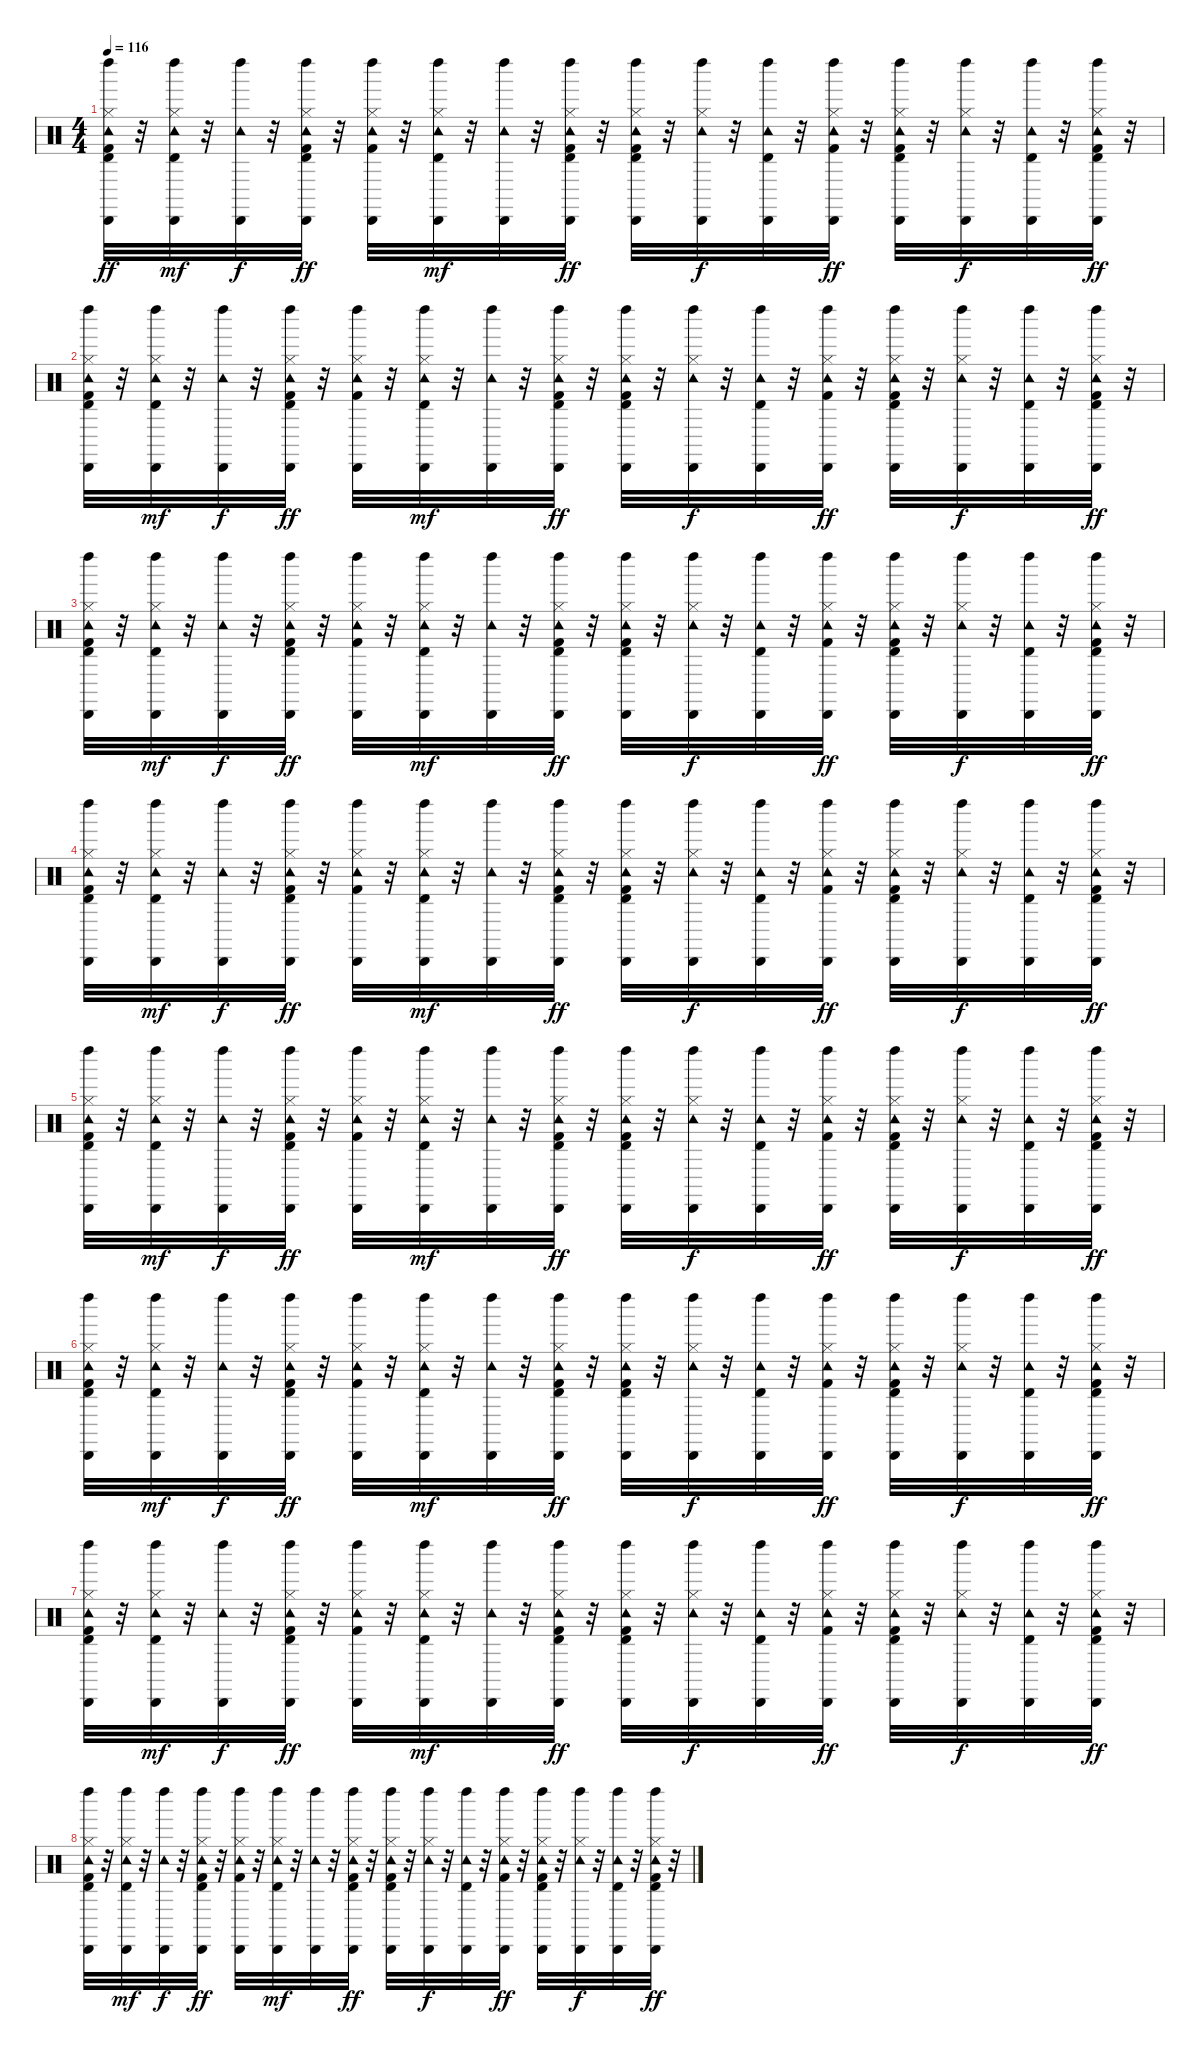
\track "" {instrument percussion}
\staff {score}
\articulation defaults
\ts (4 4)
\tempo 116
\clef neutral
\ks c
("Kick (hit) 2" "Hi-Hat (closed)" "Tambourine (hit)" "Timbale high (hit)" "Cabasa (hit)" "Left Maraca (hit)").32{dy ff} r.32 ("Hi-Hat (closed)" "Tambourine (hit)" "Timbale high (hit)" "Cabasa (hit)" "Left Maraca (hit)").32{dy mf} r.32 ("Tambourine (hit)" "Cabasa (hit)" "Left Maraca (hit)").32{dy f} r.32 ("Kick (hit) 2" "Hi-Hat (closed)" "Tambourine (hit)" "Timbale high (hit)" "Cabasa (hit)" "Left Maraca (hit)").32{dy ff} r.32 ("Kick (hit) 2" "Hi-Hat (closed)" "Tambourine (hit)" "Cabasa (hit)" "Left Maraca (hit)").32 r.32 ("Hi-Hat (closed)" "Tambourine (hit)" "Timbale high (hit)" "Cabasa (hit)" "Left Maraca (hit)").32{dy mf} r.32 ("Tambourine (hit)" "Cabasa (hit)" "Left Maraca (hit)").32 r.32 ("Kick (hit) 2" "Hi-Hat (closed)" "Tambourine (hit)" "Timbale high (hit)" "Cabasa (hit)" "Left Maraca (hit)").32{dy ff} r.32 ("Kick (hit) 2" "Hi-Hat (closed)" "Tambourine (hit)" "Timbale high (hit)" "Cabasa (hit)" "Left Maraca (hit)").32 r.32 ("Hi-Hat (closed)" "Tambourine (hit)" "Cabasa (hit)" "Left Maraca (hit)").32{dy f} r.32 ("Tambourine (hit)" "Timbale high (hit)" "Cabasa (hit)" "Left Maraca (hit)").32 r.32 ("Kick (hit) 2" "Hi-Hat (closed)" "Tambourine (hit)" "Cabasa (hit)" "Left Maraca (hit)").32{dy ff} r.32 ("Kick (hit) 2" "Hi-Hat (closed)" "Tambourine (hit)" "Timbale high (hit)" "Cabasa (hit)" "Left Maraca (hit)").32 r.32 ("Hi-Hat (closed)" "Tambourine (hit)" "Cabasa (hit)" "Left Maraca (hit)").32{dy f} r.32 ("Tambourine (hit)" "Timbale high (hit)" "Cabasa (hit)" "Left Maraca (hit)").32 r.32 ("Kick (hit) 2" "Hi-Hat (closed)" "Tambourine (hit)" "Timbale high (hit)" "Cabasa (hit)" "Left Maraca (hit)").32{dy ff} r.32 |
("Kick (hit) 2" "Hi-Hat (closed)" "Tambourine (hit)" "Timbale high (hit)" "Cabasa (hit)" "Left Maraca (hit)").32 r.32 ("Hi-Hat (closed)" "Tambourine (hit)" "Timbale high (hit)" "Cabasa (hit)" "Left Maraca (hit)").32{dy mf} r.32 ("Tambourine (hit)" "Cabasa (hit)" "Left Maraca (hit)").32{dy f} r.32 ("Kick (hit) 2" "Hi-Hat (closed)" "Tambourine (hit)" "Timbale high (hit)" "Cabasa (hit)" "Left Maraca (hit)").32{dy ff} r.32 ("Kick (hit) 2" "Hi-Hat (closed)" "Tambourine (hit)" "Cabasa (hit)" "Left Maraca (hit)").32 r.32 ("Hi-Hat (closed)" "Tambourine (hit)" "Timbale high (hit)" "Cabasa (hit)" "Left Maraca (hit)").32{dy mf} r.32 ("Tambourine (hit)" "Cabasa (hit)" "Left Maraca (hit)").32 r.32 ("Kick (hit) 2" "Hi-Hat (closed)" "Tambourine (hit)" "Timbale high (hit)" "Cabasa (hit)" "Left Maraca (hit)").32{dy ff} r.32 ("Kick (hit) 2" "Hi-Hat (closed)" "Tambourine (hit)" "Timbale high (hit)" "Cabasa (hit)" "Left Maraca (hit)").32 r.32 ("Hi-Hat (closed)" "Tambourine (hit)" "Cabasa (hit)" "Left Maraca (hit)").32{dy f} r.32 ("Tambourine (hit)" "Timbale high (hit)" "Cabasa (hit)" "Left Maraca (hit)").32 r.32 ("Kick (hit) 2" "Hi-Hat (closed)" "Tambourine (hit)" "Cabasa (hit)" "Left Maraca (hit)").32{dy ff} r.32 ("Kick (hit) 2" "Hi-Hat (closed)" "Tambourine (hit)" "Timbale high (hit)" "Cabasa (hit)" "Left Maraca (hit)").32 r.32 ("Hi-Hat (closed)" "Tambourine (hit)" "Cabasa (hit)" "Left Maraca (hit)").32{dy f} r.32 ("Tambourine (hit)" "Timbale high (hit)" "Cabasa (hit)" "Left Maraca (hit)").32 r.32 ("Kick (hit) 2" "Hi-Hat (closed)" "Tambourine (hit)" "Timbale high (hit)" "Cabasa (hit)" "Left Maraca (hit)").32{dy ff} r.32 |
("Kick (hit) 2" "Hi-Hat (closed)" "Tambourine (hit)" "Timbale high (hit)" "Cabasa (hit)" "Left Maraca (hit)").32 r.32 ("Hi-Hat (closed)" "Tambourine (hit)" "Timbale high (hit)" "Cabasa (hit)" "Left Maraca (hit)").32{dy mf} r.32 ("Tambourine (hit)" "Cabasa (hit)" "Left Maraca (hit)").32{dy f} r.32 ("Kick (hit) 2" "Hi-Hat (closed)" "Tambourine (hit)" "Timbale high (hit)" "Cabasa (hit)" "Left Maraca (hit)").32{dy ff} r.32 ("Kick (hit) 2" "Hi-Hat (closed)" "Tambourine (hit)" "Cabasa (hit)" "Left Maraca (hit)").32 r.32 ("Hi-Hat (closed)" "Tambourine (hit)" "Timbale high (hit)" "Cabasa (hit)" "Left Maraca (hit)").32{dy mf} r.32 ("Tambourine (hit)" "Cabasa (hit)" "Left Maraca (hit)").32 r.32 ("Kick (hit) 2" "Hi-Hat (closed)" "Tambourine (hit)" "Timbale high (hit)" "Cabasa (hit)" "Left Maraca (hit)").32{dy ff} r.32 ("Kick (hit) 2" "Hi-Hat (closed)" "Tambourine (hit)" "Timbale high (hit)" "Cabasa (hit)" "Left Maraca (hit)").32 r.32 ("Hi-Hat (closed)" "Tambourine (hit)" "Cabasa (hit)" "Left Maraca (hit)").32{dy f} r.32 ("Tambourine (hit)" "Timbale high (hit)" "Cabasa (hit)" "Left Maraca (hit)").32 r.32 ("Kick (hit) 2" "Hi-Hat (closed)" "Tambourine (hit)" "Cabasa (hit)" "Left Maraca (hit)").32{dy ff} r.32 ("Kick (hit) 2" "Hi-Hat (closed)" "Tambourine (hit)" "Timbale high (hit)" "Cabasa (hit)" "Left Maraca (hit)").32 r.32 ("Hi-Hat (closed)" "Tambourine (hit)" "Cabasa (hit)" "Left Maraca (hit)").32{dy f} r.32 ("Tambourine (hit)" "Timbale high (hit)" "Cabasa (hit)" "Left Maraca (hit)").32 r.32 ("Kick (hit) 2" "Hi-Hat (closed)" "Tambourine (hit)" "Timbale high (hit)" "Cabasa (hit)" "Left Maraca (hit)").32{dy ff} r.32 |
("Kick (hit) 2" "Hi-Hat (closed)" "Tambourine (hit)" "Timbale high (hit)" "Cabasa (hit)" "Left Maraca (hit)").32 r.32 ("Hi-Hat (closed)" "Tambourine (hit)" "Timbale high (hit)" "Cabasa (hit)" "Left Maraca (hit)").32{dy mf} r.32 ("Tambourine (hit)" "Cabasa (hit)" "Left Maraca (hit)").32{dy f} r.32 ("Kick (hit) 2" "Hi-Hat (closed)" "Tambourine (hit)" "Timbale high (hit)" "Cabasa (hit)" "Left Maraca (hit)").32{dy ff} r.32 ("Kick (hit) 2" "Hi-Hat (closed)" "Tambourine (hit)" "Cabasa (hit)" "Left Maraca (hit)").32 r.32 ("Hi-Hat (closed)" "Tambourine (hit)" "Timbale high (hit)" "Cabasa (hit)" "Left Maraca (hit)").32{dy mf} r.32 ("Tambourine (hit)" "Cabasa (hit)" "Left Maraca (hit)").32 r.32 ("Kick (hit) 2" "Hi-Hat (closed)" "Tambourine (hit)" "Timbale high (hit)" "Cabasa (hit)" "Left Maraca (hit)").32{dy ff} r.32 ("Kick (hit) 2" "Hi-Hat (closed)" "Tambourine (hit)" "Timbale high (hit)" "Cabasa (hit)" "Left Maraca (hit)").32 r.32 ("Hi-Hat (closed)" "Tambourine (hit)" "Cabasa (hit)" "Left Maraca (hit)").32{dy f} r.32 ("Tambourine (hit)" "Timbale high (hit)" "Cabasa (hit)" "Left Maraca (hit)").32 r.32 ("Kick (hit) 2" "Hi-Hat (closed)" "Tambourine (hit)" "Cabasa (hit)" "Left Maraca (hit)").32{dy ff} r.32 ("Kick (hit) 2" "Hi-Hat (closed)" "Tambourine (hit)" "Timbale high (hit)" "Cabasa (hit)" "Left Maraca (hit)").32 r.32 ("Hi-Hat (closed)" "Tambourine (hit)" "Cabasa (hit)" "Left Maraca (hit)").32{dy f} r.32 ("Tambourine (hit)" "Timbale high (hit)" "Cabasa (hit)" "Left Maraca (hit)").32 r.32 ("Kick (hit) 2" "Hi-Hat (closed)" "Tambourine (hit)" "Timbale high (hit)" "Cabasa (hit)" "Left Maraca (hit)").32{dy ff} r.32 |
("Kick (hit) 2" "Hi-Hat (closed)" "Tambourine (hit)" "Timbale high (hit)" "Cabasa (hit)" "Left Maraca (hit)").32 r.32 ("Hi-Hat (closed)" "Tambourine (hit)" "Timbale high (hit)" "Cabasa (hit)" "Left Maraca (hit)").32{dy mf} r.32 ("Tambourine (hit)" "Cabasa (hit)" "Left Maraca (hit)").32{dy f} r.32 ("Kick (hit) 2" "Hi-Hat (closed)" "Tambourine (hit)" "Timbale high (hit)" "Cabasa (hit)" "Left Maraca (hit)").32{dy ff} r.32 ("Kick (hit) 2" "Hi-Hat (closed)" "Tambourine (hit)" "Cabasa (hit)" "Left Maraca (hit)").32 r.32 ("Hi-Hat (closed)" "Tambourine (hit)" "Timbale high (hit)" "Cabasa (hit)" "Left Maraca (hit)").32{dy mf} r.32 ("Tambourine (hit)" "Cabasa (hit)" "Left Maraca (hit)").32 r.32 ("Kick (hit) 2" "Hi-Hat (closed)" "Tambourine (hit)" "Timbale high (hit)" "Cabasa (hit)" "Left Maraca (hit)").32{dy ff} r.32 ("Kick (hit) 2" "Hi-Hat (closed)" "Tambourine (hit)" "Timbale high (hit)" "Cabasa (hit)" "Left Maraca (hit)").32 r.32 ("Hi-Hat (closed)" "Tambourine (hit)" "Cabasa (hit)" "Left Maraca (hit)").32{dy f} r.32 ("Tambourine (hit)" "Timbale high (hit)" "Cabasa (hit)" "Left Maraca (hit)").32 r.32 ("Kick (hit) 2" "Hi-Hat (closed)" "Tambourine (hit)" "Cabasa (hit)" "Left Maraca (hit)").32{dy ff} r.32 ("Kick (hit) 2" "Hi-Hat (closed)" "Tambourine (hit)" "Timbale high (hit)" "Cabasa (hit)" "Left Maraca (hit)").32 r.32 ("Hi-Hat (closed)" "Tambourine (hit)" "Cabasa (hit)" "Left Maraca (hit)").32{dy f} r.32 ("Tambourine (hit)" "Timbale high (hit)" "Cabasa (hit)" "Left Maraca (hit)").32 r.32 ("Kick (hit) 2" "Hi-Hat (closed)" "Tambourine (hit)" "Timbale high (hit)" "Cabasa (hit)" "Left Maraca (hit)").32{dy ff} r.32 |
("Kick (hit) 2" "Hi-Hat (closed)" "Tambourine (hit)" "Timbale high (hit)" "Cabasa (hit)" "Left Maraca (hit)").32 r.32 ("Hi-Hat (closed)" "Tambourine (hit)" "Timbale high (hit)" "Cabasa (hit)" "Left Maraca (hit)").32{dy mf} r.32 ("Tambourine (hit)" "Cabasa (hit)" "Left Maraca (hit)").32{dy f} r.32 ("Kick (hit) 2" "Hi-Hat (closed)" "Tambourine (hit)" "Timbale high (hit)" "Cabasa (hit)" "Left Maraca (hit)").32{dy ff} r.32 ("Kick (hit) 2" "Hi-Hat (closed)" "Tambourine (hit)" "Cabasa (hit)" "Left Maraca (hit)").32 r.32 ("Hi-Hat (closed)" "Tambourine (hit)" "Timbale high (hit)" "Cabasa (hit)" "Left Maraca (hit)").32{dy mf} r.32 ("Tambourine (hit)" "Cabasa (hit)" "Left Maraca (hit)").32 r.32 ("Kick (hit) 2" "Hi-Hat (closed)" "Tambourine (hit)" "Timbale high (hit)" "Cabasa (hit)" "Left Maraca (hit)").32{dy ff} r.32 ("Kick (hit) 2" "Hi-Hat (closed)" "Tambourine (hit)" "Timbale high (hit)" "Cabasa (hit)" "Left Maraca (hit)").32 r.32 ("Hi-Hat (closed)" "Tambourine (hit)" "Cabasa (hit)" "Left Maraca (hit)").32{dy f} r.32 ("Tambourine (hit)" "Timbale high (hit)" "Cabasa (hit)" "Left Maraca (hit)").32 r.32 ("Kick (hit) 2" "Hi-Hat (closed)" "Tambourine (hit)" "Cabasa (hit)" "Left Maraca (hit)").32{dy ff} r.32 ("Kick (hit) 2" "Hi-Hat (closed)" "Tambourine (hit)" "Timbale high (hit)" "Cabasa (hit)" "Left Maraca (hit)").32 r.32 ("Hi-Hat (closed)" "Tambourine (hit)" "Cabasa (hit)" "Left Maraca (hit)").32{dy f} r.32 ("Tambourine (hit)" "Timbale high (hit)" "Cabasa (hit)" "Left Maraca (hit)").32 r.32 ("Kick (hit) 2" "Hi-Hat (closed)" "Tambourine (hit)" "Timbale high (hit)" "Cabasa (hit)" "Left Maraca (hit)").32{dy ff} r.32 |
("Kick (hit) 2" "Hi-Hat (closed)" "Tambourine (hit)" "Timbale high (hit)" "Cabasa (hit)" "Left Maraca (hit)").32 r.32 ("Hi-Hat (closed)" "Tambourine (hit)" "Timbale high (hit)" "Cabasa (hit)" "Left Maraca (hit)").32{dy mf} r.32 ("Tambourine (hit)" "Cabasa (hit)" "Left Maraca (hit)").32{dy f} r.32 ("Kick (hit) 2" "Hi-Hat (closed)" "Tambourine (hit)" "Timbale high (hit)" "Cabasa (hit)" "Left Maraca (hit)").32{dy ff} r.32 ("Kick (hit) 2" "Hi-Hat (closed)" "Tambourine (hit)" "Cabasa (hit)" "Left Maraca (hit)").32 r.32 ("Hi-Hat (closed)" "Tambourine (hit)" "Timbale high (hit)" "Cabasa (hit)" "Left Maraca (hit)").32{dy mf} r.32 ("Tambourine (hit)" "Cabasa (hit)" "Left Maraca (hit)").32 r.32 ("Kick (hit) 2" "Hi-Hat (closed)" "Tambourine (hit)" "Timbale high (hit)" "Cabasa (hit)" "Left Maraca (hit)").32{dy ff} r.32 ("Kick (hit) 2" "Hi-Hat (closed)" "Tambourine (hit)" "Timbale high (hit)" "Cabasa (hit)" "Left Maraca (hit)").32 r.32 ("Hi-Hat (closed)" "Tambourine (hit)" "Cabasa (hit)" "Left Maraca (hit)").32{dy f} r.32 ("Tambourine (hit)" "Timbale high (hit)" "Cabasa (hit)" "Left Maraca (hit)").32 r.32 ("Kick (hit) 2" "Hi-Hat (closed)" "Tambourine (hit)" "Cabasa (hit)" "Left Maraca (hit)").32{dy ff} r.32 ("Kick (hit) 2" "Hi-Hat (closed)" "Tambourine (hit)" "Timbale high (hit)" "Cabasa (hit)" "Left Maraca (hit)").32 r.32 ("Hi-Hat (closed)" "Tambourine (hit)" "Cabasa (hit)" "Left Maraca (hit)").32{dy f} r.32 ("Tambourine (hit)" "Timbale high (hit)" "Cabasa (hit)" "Left Maraca (hit)").32 r.32 ("Kick (hit) 2" "Hi-Hat (closed)" "Tambourine (hit)" "Timbale high (hit)" "Cabasa (hit)" "Left Maraca (hit)").32{dy ff} r.32 |
("Kick (hit) 2" "Hi-Hat (closed)" "Tambourine (hit)" "Timbale high (hit)" "Cabasa (hit)" "Left Maraca (hit)").32 r.32 ("Hi-Hat (closed)" "Tambourine (hit)" "Timbale high (hit)" "Cabasa (hit)" "Left Maraca (hit)").32{dy mf} r.32 ("Tambourine (hit)" "Cabasa (hit)" "Left Maraca (hit)").32{dy f} r.32 ("Kick (hit) 2" "Hi-Hat (closed)" "Tambourine (hit)" "Timbale high (hit)" "Cabasa (hit)" "Left Maraca (hit)").32{dy ff} r.32 ("Kick (hit) 2" "Hi-Hat (closed)" "Tambourine (hit)" "Cabasa (hit)" "Left Maraca (hit)").32 r.32 ("Hi-Hat (closed)" "Tambourine (hit)" "Timbale high (hit)" "Cabasa (hit)" "Left Maraca (hit)").32{dy mf} r.32 ("Tambourine (hit)" "Cabasa (hit)" "Left Maraca (hit)").32 r.32 ("Kick (hit) 2" "Hi-Hat (closed)" "Tambourine (hit)" "Timbale high (hit)" "Cabasa (hit)" "Left Maraca (hit)").32{dy ff} r.32 ("Kick (hit) 2" "Hi-Hat (closed)" "Tambourine (hit)" "Timbale high (hit)" "Cabasa (hit)" "Left Maraca (hit)").32 r.32 ("Hi-Hat (closed)" "Tambourine (hit)" "Cabasa (hit)" "Left Maraca (hit)").32{dy f} r.32 ("Tambourine (hit)" "Timbale high (hit)" "Cabasa (hit)" "Left Maraca (hit)").32 r.32 ("Kick (hit) 2" "Hi-Hat (closed)" "Tambourine (hit)" "Cabasa (hit)" "Left Maraca (hit)").32{dy ff} r.32 ("Kick (hit) 2" "Hi-Hat (closed)" "Tambourine (hit)" "Timbale high (hit)" "Cabasa (hit)" "Left Maraca (hit)").32 r.32 ("Hi-Hat (closed)" "Tambourine (hit)" "Cabasa (hit)" "Left Maraca (hit)").32{dy f} r.32 ("Tambourine (hit)" "Timbale high (hit)" "Cabasa (hit)" "Left Maraca (hit)").32 r.32 ("Kick (hit) 2" "Hi-Hat (closed)" "Tambourine (hit)" "Timbale high (hit)" "Cabasa (hit)" "Left Maraca (hit)").32{dy ff} r.32
